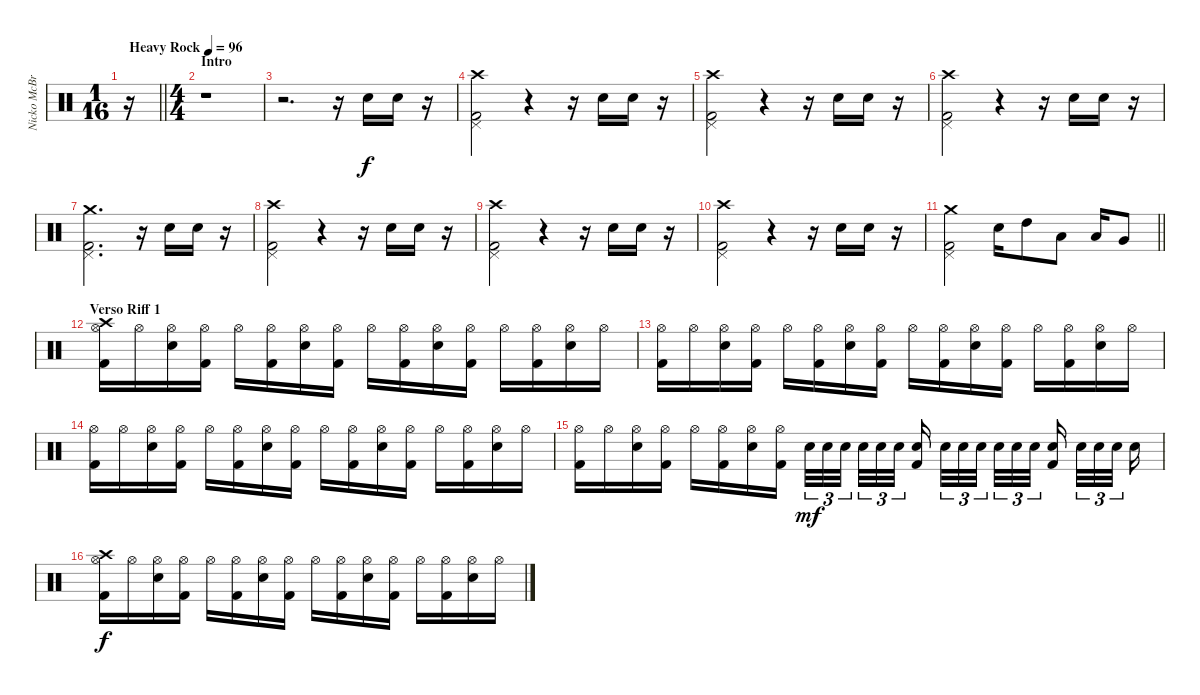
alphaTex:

\track ("Nicko McBrain" "Nicko McBr") {instrument percussion}
\staff {score}
\articulation defaults
\ts (1 16)
\tempo (96 "Heavy Rock")
\clef neutral
\barLineRight lightlight
\ks c
r.16{dy f} |
\ts (4 4)
\section ("" "Intro")
r.1 |
r.2{d} r.16 "Snare (hit) 2".16 "Snare (hit) 2".16 r.16 |
("Kick (hit) 2" "Pedal Hi-Hat (hit)" "Crash high (hit)").2 r.4 r.16 "Snare (hit) 2".16 "Snare (hit) 2".16 r.16 |
("Kick (hit) 2" "Pedal Hi-Hat (hit)" "Crash high (hit)").2 r.4 r.16 "Snare (hit) 2".16 "Snare (hit) 2".16 r.16 |
("Kick (hit) 2" "Pedal Hi-Hat (hit)" "Crash high (hit)").2 r.4 r.16 "Snare (hit) 2".16 "Snare (hit) 2".16 r.16 |
("Kick (hit) 2" "Pedal Hi-Hat (hit)" "Crash medium (hit)").2{d} r.16 "Snare (hit) 2".16 "Snare (hit) 2".16 r.16 |
("Kick (hit) 2" "Pedal Hi-Hat (hit)" "Crash high (hit)").2 r.4 r.16 "Snare (hit) 2".16 "Snare (hit) 2".16 r.16 |
("Kick (hit) 2" "Pedal Hi-Hat (hit)" "Crash high (hit)").2 r.4 r.16 "Snare (hit) 2".16 "Snare (hit) 2".16 r.16 |
("Kick (hit) 2" "Pedal Hi-Hat (hit)" "Crash high (hit)").2 r.4 r.16 "Snare (hit) 2".16 "Snare (hit) 2".16 r.16 |
\barLineRight lightlight
("Kick (hit) 2" "Pedal Hi-Hat (hit)" "Crash medium (hit)").2 "Snare (hit) 2".16 "High Tom (hit)".8 "Low Tom (hit)".8 "Low Tom (hit)".16 "Very Low Tom (hit)".8 |
\section ("" "Verso Riff 1")
("Kick (hit) 2" "Hi-Hat (open)" "Crash high (hit)").16 "Hi-Hat (open)".16 ("Snare (hit) 2" "Hi-Hat (open)").16 ("Kick (hit) 2" "Hi-Hat (open)").16 "Hi-Hat (open)".16 ("Kick (hit) 2" "Hi-Hat (open)").16 ("Snare (hit) 2" "Hi-Hat (open)").16 ("Kick (hit) 2" "Hi-Hat (open)").16 "Hi-Hat (open)".16 ("Kick (hit) 2" "Hi-Hat (open)").16 ("Snare (hit) 2" "Hi-Hat (open)").16 ("Kick (hit) 2" "Hi-Hat (open)").16 "Hi-Hat (open)".16 ("Kick (hit) 2" "Hi-Hat (open)").16 ("Snare (hit) 2" "Hi-Hat (open)").16 "Hi-Hat (open)".16 |
("Kick (hit) 2" "Hi-Hat (open)").16 "Hi-Hat (open)".16 ("Snare (hit) 2" "Hi-Hat (open)").16 ("Kick (hit) 2" "Hi-Hat (open)").16 "Hi-Hat (open)".16 ("Kick (hit) 2" "Hi-Hat (open)").16 ("Snare (hit) 2" "Hi-Hat (open)").16 ("Kick (hit) 2" "Hi-Hat (open)").16 "Hi-Hat (open)".16 ("Kick (hit) 2" "Hi-Hat (open)").16 ("Snare (hit) 2" "Hi-Hat (open)").16 ("Kick (hit) 2" "Hi-Hat (open)").16 "Hi-Hat (open)".16 ("Kick (hit) 2" "Hi-Hat (open)").16 ("Snare (hit) 2" "Hi-Hat (open)").16 "Hi-Hat (open)".16 |
("Kick (hit) 2" "Hi-Hat (open)").16 "Hi-Hat (open)".16 ("Snare (hit) 2" "Hi-Hat (open)").16 ("Kick (hit) 2" "Hi-Hat (open)").16 "Hi-Hat (open)".16 ("Kick (hit) 2" "Hi-Hat (open)").16 ("Snare (hit) 2" "Hi-Hat (open)").16 ("Kick (hit) 2" "Hi-Hat (open)").16 "Hi-Hat (open)".16 ("Kick (hit) 2" "Hi-Hat (open)").16 ("Snare (hit) 2" "Hi-Hat (open)").16 ("Kick (hit) 2" "Hi-Hat (open)").16 "Hi-Hat (open)".16 ("Kick (hit) 2" "Hi-Hat (open)").16 ("Snare (hit) 2" "Hi-Hat (open)").16 "Hi-Hat (open)".16 |
("Kick (hit) 2" "Hi-Hat (open)").16 "Hi-Hat (open)".16 ("Snare (hit) 2" "Hi-Hat (open)").16 ("Kick (hit) 2" "Hi-Hat (open)").16 "Hi-Hat (open)".16 ("Kick (hit) 2" "Hi-Hat (open)").16 ("Snare (hit) 2" "Hi-Hat (open)").16 ("Kick (hit) 2" "Hi-Hat (open)").16 "Snare (hit) 2".32{tu (3 2) dy mf} "Snare (hit) 2".32{tu (3 2)} "Snare (hit) 2".32{tu (3 2) beam splitsecondary} "Snare (hit) 2".32{tu (3 2)} "Snare (hit) 2".32{tu (3 2)} "Snare (hit) 2".32{tu (3 2) beam splitsecondary} ("Snare (hit) 2" "Kick (hit) 2").16{beam splitsecondary} "Snare (hit) 2".32{tu (3 2)} "Snare (hit) 2".32{tu (3 2)} "Snare (hit) 2".32{tu (3 2)} "Snare (hit) 2".32{tu (3 2)} "Snare (hit) 2".32{tu (3 2)} "Snare (hit) 2".32{tu (3 2) beam splitsecondary} ("Snare (hit) 2" "Kick (hit) 2").16{beam splitsecondary} "Snare (hit) 2".32{tu (3 2)} "Snare (hit) 2".32{tu (3 2)} "Snare (hit) 2".32{tu (3 2) beam splitsecondary} "Snare (hit) 2".16 |
("Kick (hit) 2" "Hi-Hat (open)" "Crash high (hit)").16{dy f} "Hi-Hat (open)".16 ("Snare (hit) 2" "Hi-Hat (open)").16 ("Kick (hit) 2" "Hi-Hat (open)").16 "Hi-Hat (open)".16 ("Kick (hit) 2" "Hi-Hat (open)").16 ("Snare (hit) 2" "Hi-Hat (open)").16 ("Kick (hit) 2" "Hi-Hat (open)").16 "Hi-Hat (open)".16 ("Kick (hit) 2" "Hi-Hat (open)").16 ("Snare (hit) 2" "Hi-Hat (open)").16 ("Kick (hit) 2" "Hi-Hat (open)").16 "Hi-Hat (open)".16 ("Kick (hit) 2" "Hi-Hat (open)").16 ("Snare (hit) 2" "Hi-Hat (open)").16 "Hi-Hat (open)".16
